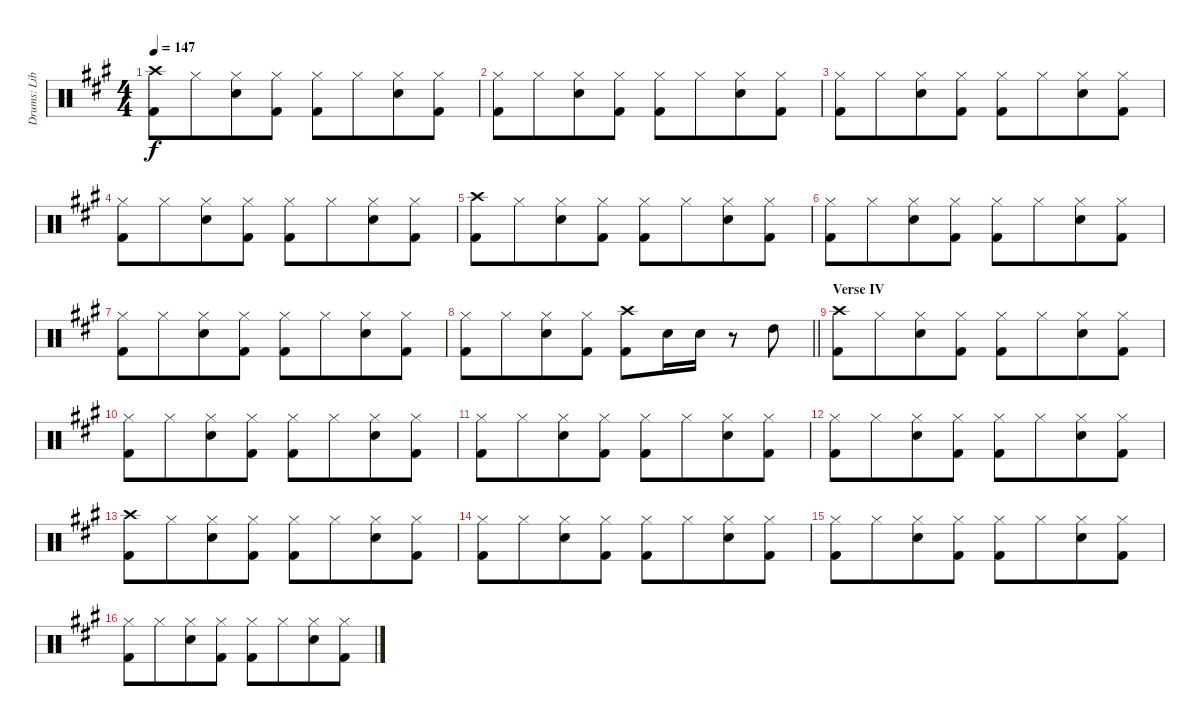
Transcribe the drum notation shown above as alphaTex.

\track ("Drums: Liberty" "Drums: Lib") {instrument percussion}
\staff {score}
\articulation defaults
\ts (4 4)
\tempo 147
\clef neutral
\ks a
("Crash high (hit)" "Kick (hit) 2").8{dy f} "Hi-Hat (closed)".8{beam merge} ("Hi-Hat (closed)" "Electric Snare (hit)").8 ("Hi-Hat (closed)" "Kick (hit) 2").8 ("Hi-Hat (closed)" "Kick (hit) 2").8 "Hi-Hat (closed)".8{beam merge} ("Hi-Hat (closed)" "Electric Snare (hit)").8 ("Hi-Hat (closed)" "Kick (hit) 2").8 |
("Hi-Hat (closed)" "Kick (hit) 2").8 "Hi-Hat (closed)".8{beam merge} ("Hi-Hat (closed)" "Electric Snare (hit)").8 ("Hi-Hat (closed)" "Kick (hit) 2").8 ("Hi-Hat (closed)" "Kick (hit) 2").8 "Hi-Hat (closed)".8{beam merge} ("Hi-Hat (closed)" "Electric Snare (hit)").8 ("Hi-Hat (closed)" "Kick (hit) 2").8 |
("Hi-Hat (closed)" "Kick (hit) 2").8 "Hi-Hat (closed)".8{beam merge} ("Hi-Hat (closed)" "Electric Snare (hit)").8 ("Hi-Hat (closed)" "Kick (hit) 2").8 ("Hi-Hat (closed)" "Kick (hit) 2").8 "Hi-Hat (closed)".8{beam merge} ("Hi-Hat (closed)" "Electric Snare (hit)").8 ("Hi-Hat (closed)" "Kick (hit) 2").8 |
("Hi-Hat (closed)" "Kick (hit) 2").8 "Hi-Hat (closed)".8{beam merge} ("Hi-Hat (closed)" "Electric Snare (hit)").8 ("Hi-Hat (closed)" "Kick (hit) 2").8 ("Hi-Hat (closed)" "Kick (hit) 2").8 "Hi-Hat (closed)".8{beam merge} ("Hi-Hat (closed)" "Electric Snare (hit)").8 ("Hi-Hat (closed)" "Kick (hit) 2").8 |
("Crash high (hit)" "Kick (hit) 2").8 "Hi-Hat (closed)".8{beam merge} ("Hi-Hat (closed)" "Electric Snare (hit)").8 ("Hi-Hat (closed)" "Kick (hit) 2").8 ("Hi-Hat (closed)" "Kick (hit) 2").8 "Hi-Hat (closed)".8{beam merge} ("Hi-Hat (closed)" "Electric Snare (hit)").8 ("Hi-Hat (closed)" "Kick (hit) 2").8 |
("Hi-Hat (closed)" "Kick (hit) 2").8 "Hi-Hat (closed)".8{beam merge} ("Hi-Hat (closed)" "Electric Snare (hit)").8 ("Hi-Hat (closed)" "Kick (hit) 2").8 ("Hi-Hat (closed)" "Kick (hit) 2").8 "Hi-Hat (closed)".8{beam merge} ("Hi-Hat (closed)" "Electric Snare (hit)").8 ("Hi-Hat (closed)" "Kick (hit) 2").8 |
("Hi-Hat (closed)" "Kick (hit) 2").8 "Hi-Hat (closed)".8{beam merge} ("Hi-Hat (closed)" "Electric Snare (hit)").8 ("Hi-Hat (closed)" "Kick (hit) 2").8 ("Hi-Hat (closed)" "Kick (hit) 2").8 "Hi-Hat (closed)".8{beam merge} ("Hi-Hat (closed)" "Electric Snare (hit)").8 ("Hi-Hat (closed)" "Kick (hit) 2").8 |
\barLineRight lightlight
("Hi-Hat (closed)" "Kick (hit) 2").8 "Hi-Hat (closed)".8{beam merge} ("Hi-Hat (closed)" "Electric Snare (hit)").8 ("Hi-Hat (closed)" "Kick (hit) 2").8 ("Crash high (hit)" "Kick (hit) 2").8 "Electric Snare (hit)".16{beam merge} "Electric Snare (hit)".16 r.8 "High Tom (hit)".8 |
\section ("" "Verse IV")
("Crash high (hit)" "Kick (hit) 2").8 "Hi-Hat (closed)".8{beam merge} ("Hi-Hat (closed)" "Electric Snare (hit)").8 ("Hi-Hat (closed)" "Kick (hit) 2").8 ("Hi-Hat (closed)" "Kick (hit) 2").8 "Hi-Hat (closed)".8{beam merge} ("Hi-Hat (closed)" "Electric Snare (hit)").8 ("Hi-Hat (closed)" "Kick (hit) 2").8 |
("Hi-Hat (closed)" "Kick (hit) 2").8 "Hi-Hat (closed)".8{beam merge} ("Hi-Hat (closed)" "Electric Snare (hit)").8 ("Hi-Hat (closed)" "Kick (hit) 2").8 ("Hi-Hat (closed)" "Kick (hit) 2").8 "Hi-Hat (closed)".8{beam merge} ("Hi-Hat (closed)" "Electric Snare (hit)").8 ("Hi-Hat (closed)" "Kick (hit) 2").8 |
("Hi-Hat (closed)" "Kick (hit) 2").8 "Hi-Hat (closed)".8{beam merge} ("Hi-Hat (closed)" "Electric Snare (hit)").8 ("Hi-Hat (closed)" "Kick (hit) 2").8 ("Hi-Hat (closed)" "Kick (hit) 2").8 "Hi-Hat (closed)".8{beam merge} ("Hi-Hat (closed)" "Electric Snare (hit)").8 ("Hi-Hat (closed)" "Kick (hit) 2").8 |
("Hi-Hat (closed)" "Kick (hit) 2").8 "Hi-Hat (closed)".8{beam merge} ("Hi-Hat (closed)" "Electric Snare (hit)").8 ("Hi-Hat (closed)" "Kick (hit) 2").8 ("Hi-Hat (closed)" "Kick (hit) 2").8 "Hi-Hat (closed)".8{beam merge} ("Hi-Hat (closed)" "Electric Snare (hit)").8 ("Hi-Hat (closed)" "Kick (hit) 2").8 |
("Crash high (hit)" "Kick (hit) 2").8 "Hi-Hat (closed)".8{beam merge} ("Hi-Hat (closed)" "Electric Snare (hit)").8 ("Hi-Hat (closed)" "Kick (hit) 2").8 ("Hi-Hat (closed)" "Kick (hit) 2").8 "Hi-Hat (closed)".8{beam merge} ("Hi-Hat (closed)" "Electric Snare (hit)").8 ("Hi-Hat (closed)" "Kick (hit) 2").8 |
("Hi-Hat (closed)" "Kick (hit) 2").8 "Hi-Hat (closed)".8{beam merge} ("Hi-Hat (closed)" "Electric Snare (hit)").8 ("Hi-Hat (closed)" "Kick (hit) 2").8 ("Hi-Hat (closed)" "Kick (hit) 2").8 "Hi-Hat (closed)".8{beam merge} ("Hi-Hat (closed)" "Electric Snare (hit)").8 ("Hi-Hat (closed)" "Kick (hit) 2").8 |
("Hi-Hat (closed)" "Kick (hit) 2").8 "Hi-Hat (closed)".8{beam merge} ("Hi-Hat (closed)" "Electric Snare (hit)").8 ("Hi-Hat (closed)" "Kick (hit) 2").8 ("Hi-Hat (closed)" "Kick (hit) 2").8 "Hi-Hat (closed)".8{beam merge} ("Hi-Hat (closed)" "Electric Snare (hit)").8 ("Hi-Hat (closed)" "Kick (hit) 2").8 |
("Hi-Hat (closed)" "Kick (hit) 2").8 "Hi-Hat (closed)".8{beam merge} ("Hi-Hat (closed)" "Electric Snare (hit)").8 ("Hi-Hat (closed)" "Kick (hit) 2").8 ("Hi-Hat (closed)" "Kick (hit) 2").8 "Hi-Hat (closed)".8{beam merge} ("Hi-Hat (closed)" "Electric Snare (hit)").8 ("Hi-Hat (closed)" "Kick (hit) 2").8
